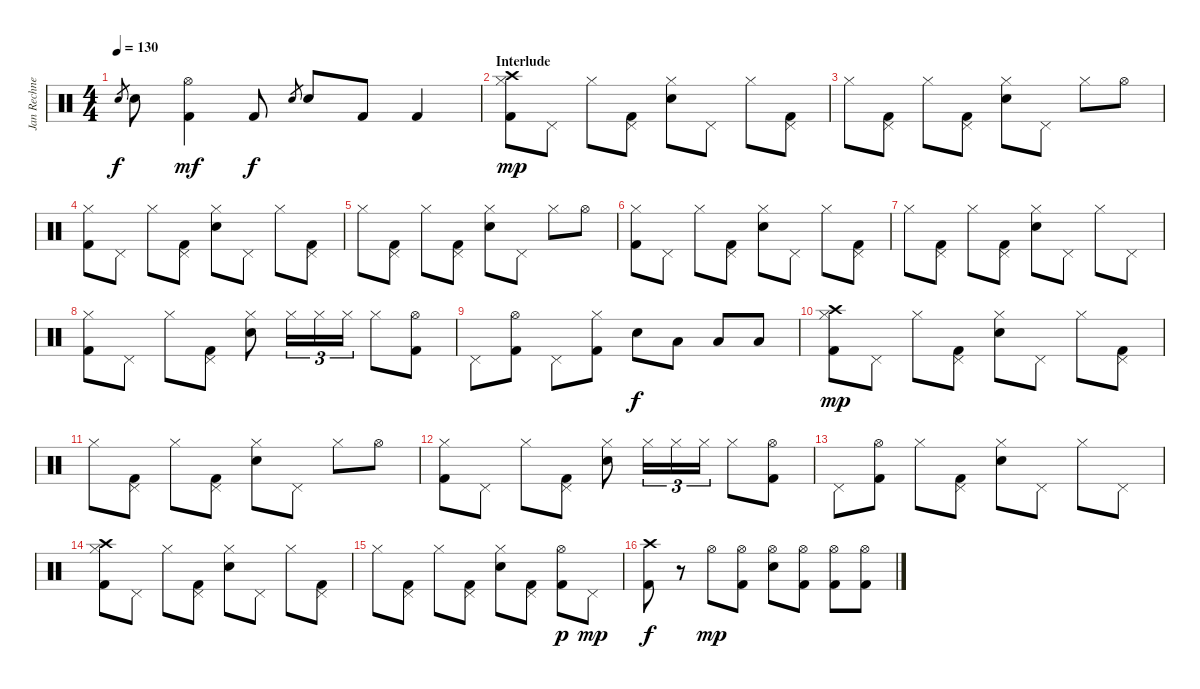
\track ("Jan Rechnerger" "Jan Rechne") {instrument percussion}
\staff {score}
\articulation defaults
\ts (4 4)
\tempo 130
\clef neutral
\ks c "Snare (hit) 2".8{gr dy f} "Snare (hit) 2".8
("Hi-Hat (open)" "Kick (hit) 2").4{dy mf} "Kick (hit) 2".8{dy f} "Snare (hit) 2".8{gr} "Snare (hit) 2".8 "Kick (hit) 2".8 "Kick (hit) 2".4 |
\section ("" "Interlude")
("Crash high (hit)" "Hi-Hat (closed)" "Kick (hit) 2").8{dy mp} "Pedal Hi-Hat (hit)".8 "Hi-Hat (closed)".8 ("Pedal Hi-Hat (hit)" "Kick (hit) 2").8 ("Hi-Hat (closed)" "Snare (hit) 2").8 "Pedal Hi-Hat (hit)".8 "Hi-Hat (closed)".8 ("Pedal Hi-Hat (hit)" "Kick (hit) 2").8 |
"Hi-Hat (closed)".8 ("Pedal Hi-Hat (hit)" "Kick (hit) 2").8 "Hi-Hat (closed)".8 ("Pedal Hi-Hat (hit)" "Kick (hit) 2").8 ("Hi-Hat (closed)" "Snare (hit) 2").8 "Pedal Hi-Hat (hit)".8 "Hi-Hat (closed)".8 "Hi-Hat (open)".8 |
("Hi-Hat (closed)" "Kick (hit) 2").8 "Pedal Hi-Hat (hit)".8 "Hi-Hat (closed)".8 ("Pedal Hi-Hat (hit)" "Kick (hit) 2").8 ("Hi-Hat (closed)" "Snare (hit) 2").8 "Pedal Hi-Hat (hit)".8 "Hi-Hat (closed)".8 ("Pedal Hi-Hat (hit)" "Kick (hit) 2").8 |
"Hi-Hat (closed)".8 ("Pedal Hi-Hat (hit)" "Kick (hit) 2").8 "Hi-Hat (closed)".8 ("Pedal Hi-Hat (hit)" "Kick (hit) 2").8 ("Hi-Hat (closed)" "Snare (hit) 2").8 "Pedal Hi-Hat (hit)".8 "Hi-Hat (closed)".8 "Hi-Hat (open)".8 |
("Hi-Hat (closed)" "Kick (hit) 2").8 "Pedal Hi-Hat (hit)".8 "Hi-Hat (closed)".8 ("Pedal Hi-Hat (hit)" "Kick (hit) 2").8 ("Hi-Hat (closed)" "Snare (hit) 2").8 "Pedal Hi-Hat (hit)".8 "Hi-Hat (closed)".8 ("Pedal Hi-Hat (hit)" "Kick (hit) 2").8 |
"Hi-Hat (closed)".8 ("Pedal Hi-Hat (hit)" "Kick (hit) 2").8 "Hi-Hat (closed)".8 ("Pedal Hi-Hat (hit)" "Kick (hit) 2").8 ("Hi-Hat (closed)" "Snare (hit) 2").8 "Pedal Hi-Hat (hit)".8 "Hi-Hat (closed)".8 "Pedal Hi-Hat (hit)".8 |
("Hi-Hat (closed)" "Kick (hit) 2").8 "Pedal Hi-Hat (hit)".8 "Hi-Hat (closed)".8 ("Pedal Hi-Hat (hit)" "Kick (hit) 2").8 ("Hi-Hat (closed)" "Snare (hit) 2").8 "Hi-Hat (closed)".16{tu (3 2)} "Hi-Hat (closed)".16{tu (3 2)} "Hi-Hat (closed)".16{tu (3 2)} "Hi-Hat (closed)".8 ("Hi-Hat (open)" "Kick (hit) 2").8 |
"Pedal Hi-Hat (hit)".8 ("Hi-Hat (open)" "Kick (hit) 2").8 "Pedal Hi-Hat (hit)".8 ("Hi-Hat (closed)" "Kick (hit) 2").8 "Snare (hit) 2".8{dy f} "Low Tom (hit)".8 "Low Tom (hit)".8 "Low Tom (hit)".8 |
("Crash high (hit)" "Hi-Hat (closed)" "Kick (hit) 2").8{dy mp} "Pedal Hi-Hat (hit)".8 "Hi-Hat (closed)".8 ("Pedal Hi-Hat (hit)" "Kick (hit) 2").8 ("Hi-Hat (closed)" "Snare (hit) 2").8 "Pedal Hi-Hat (hit)".8 "Hi-Hat (closed)".8 ("Pedal Hi-Hat (hit)" "Kick (hit) 2").8 |
"Hi-Hat (closed)".8 ("Pedal Hi-Hat (hit)" "Kick (hit) 2").8 "Hi-Hat (closed)".8 ("Pedal Hi-Hat (hit)" "Kick (hit) 2").8 ("Hi-Hat (closed)" "Snare (hit) 2").8 "Pedal Hi-Hat (hit)".8 "Hi-Hat (closed)".8 "Hi-Hat (open)".8 |
("Hi-Hat (closed)" "Kick (hit) 2").8 "Pedal Hi-Hat (hit)".8 "Hi-Hat (closed)".8 ("Pedal Hi-Hat (hit)" "Kick (hit) 2").8 ("Hi-Hat (closed)" "Snare (hit) 2").8 "Hi-Hat (closed)".16{tu (3 2)} "Hi-Hat (closed)".16{tu (3 2)} "Hi-Hat (closed)".16{tu (3 2)} "Hi-Hat (closed)".8 ("Hi-Hat (open)" "Kick (hit) 2").8 |
"Pedal Hi-Hat (hit)".8 ("Hi-Hat (open)" "Kick (hit) 2").8 "Hi-Hat (closed)".8 ("Pedal Hi-Hat (hit)" "Kick (hit) 2").8 ("Hi-Hat (closed)" "Snare (hit) 2").8 "Pedal Hi-Hat (hit)".8 "Hi-Hat (closed)".8 "Pedal Hi-Hat (hit)".8 |
("Crash high (hit)" "Hi-Hat (closed)" "Kick (hit) 2").8 "Pedal Hi-Hat (hit)".8 "Hi-Hat (closed)".8 ("Pedal Hi-Hat (hit)" "Kick (hit) 2").8 ("Hi-Hat (closed)" "Snare (hit) 2").8 "Pedal Hi-Hat (hit)".8 "Hi-Hat (closed)".8 ("Pedal Hi-Hat (hit)" "Kick (hit) 2").8 |
"Hi-Hat (closed)".8 ("Pedal Hi-Hat (hit)" "Kick (hit) 2").8 "Hi-Hat (closed)".8 ("Pedal Hi-Hat (hit)" "Kick (hit) 2").8 ("Hi-Hat (closed)" "Snare (hit) 2").8 ("Pedal Hi-Hat (hit)" "Kick (hit) 2").8 ("Hi-Hat (open)" "Kick (hit) 2").8{dy p} "Pedal Hi-Hat (hit)".8{dy mp} |
("Crash high (hit)" "Kick (hit) 2").8{dy f} r.8 "Hi-Hat (open)".8{dy mp} ("Hi-Hat (open)" "Kick (hit) 2").8 ("Hi-Hat (open)" "Snare (hit) 2").8 ("Hi-Hat (open)" "Kick (hit) 2").8 ("Hi-Hat (open)" "Kick (hit) 2").8 ("Hi-Hat (open)" "Kick (hit) 2").8
